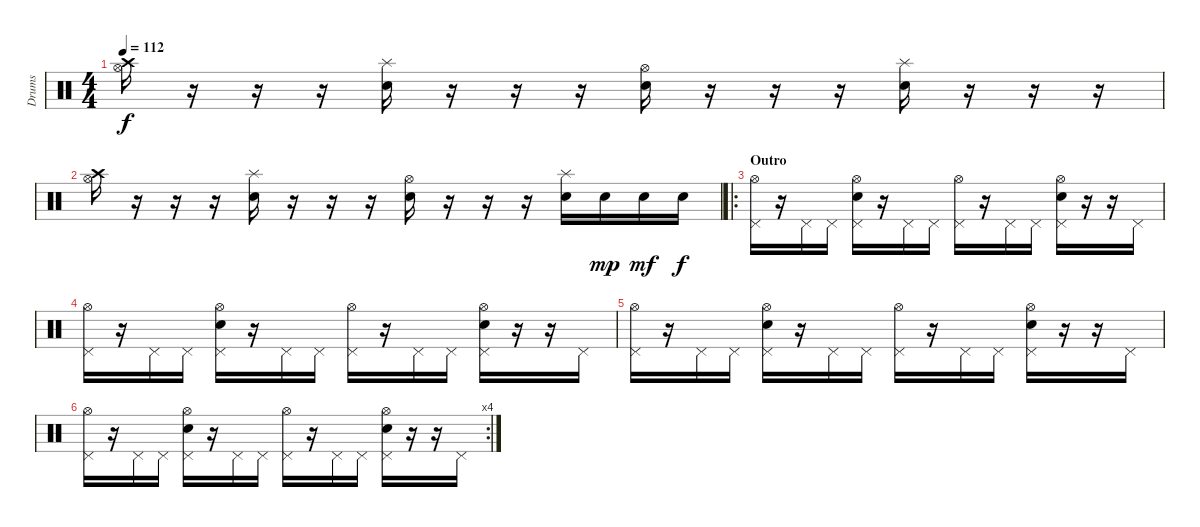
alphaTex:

\track ("Drums" "Drums") {instrument percussion}
\staff {score}
\articulation defaults
\ts (4 4)
\tempo 112
\clef neutral
\ks c
("Hi-Hat (open)" "Crash high (hit)").16{dy f} r.16 r.16 r.16 ("Electric Snare (hit)" "Splash (hit)").16 r.16 r.16 r.16 ("Hi-Hat (open)" "Electric Snare (hit)").16 r.16 r.16 r.16 ("Electric Snare (hit)" "Splash (hit)").16 r.16 r.16 r.16 |
("Hi-Hat (open)" "Crash high (hit)").16 r.16 r.16 r.16 ("Electric Snare (hit)" "Splash (hit)").16 r.16 r.16 r.16 ("Hi-Hat (open)" "Electric Snare (hit)").16 r.16 r.16 r.16 ("Electric Snare (hit)" "Splash (hit)").16 "Electric Snare (hit)".16{dy mp} "Electric Snare (hit)".16{dy mf} "Electric Snare (hit)".16{dy f} |
\ro
\section ("" "Outro")
("Pedal Hi-Hat (hit)" "Hi-Hat (open)").16 r.16 "Pedal Hi-Hat (hit)".16 "Pedal Hi-Hat (hit)".16 ("Pedal Hi-Hat (hit)" "Hi-Hat (open)" "Electric Snare (hit)").16 r.16 "Pedal Hi-Hat (hit)".16 "Pedal Hi-Hat (hit)".16 ("Pedal Hi-Hat (hit)" "Hi-Hat (open)").16 r.16 "Pedal Hi-Hat (hit)".16 "Pedal Hi-Hat (hit)".16 ("Pedal Hi-Hat (hit)" "Hi-Hat (open)" "Electric Snare (hit)").16 r.16 r.16 "Pedal Hi-Hat (hit)".16 |
("Pedal Hi-Hat (hit)" "Hi-Hat (open)").16 r.16 "Pedal Hi-Hat (hit)".16 "Pedal Hi-Hat (hit)".16 ("Pedal Hi-Hat (hit)" "Hi-Hat (open)" "Electric Snare (hit)").16 r.16 "Pedal Hi-Hat (hit)".16 "Pedal Hi-Hat (hit)".16 ("Pedal Hi-Hat (hit)" "Hi-Hat (open)").16 r.16 "Pedal Hi-Hat (hit)".16 "Pedal Hi-Hat (hit)".16 ("Pedal Hi-Hat (hit)" "Hi-Hat (open)" "Electric Snare (hit)").16 r.16 r.16 "Pedal Hi-Hat (hit)".16 |
("Pedal Hi-Hat (hit)" "Hi-Hat (open)").16 r.16 "Pedal Hi-Hat (hit)".16 "Pedal Hi-Hat (hit)".16 ("Pedal Hi-Hat (hit)" "Hi-Hat (open)" "Electric Snare (hit)").16 r.16 "Pedal Hi-Hat (hit)".16 "Pedal Hi-Hat (hit)".16 ("Pedal Hi-Hat (hit)" "Hi-Hat (open)").16 r.16 "Pedal Hi-Hat (hit)".16 "Pedal Hi-Hat (hit)".16 ("Pedal Hi-Hat (hit)" "Hi-Hat (open)" "Electric Snare (hit)").16 r.16 r.16 "Pedal Hi-Hat (hit)".16 |
\rc 4
("Pedal Hi-Hat (hit)" "Hi-Hat (open)").16 r.16 "Pedal Hi-Hat (hit)".16 "Pedal Hi-Hat (hit)".16 ("Pedal Hi-Hat (hit)" "Hi-Hat (open)" "Electric Snare (hit)").16 r.16 "Pedal Hi-Hat (hit)".16 "Pedal Hi-Hat (hit)".16 ("Pedal Hi-Hat (hit)" "Hi-Hat (open)").16 r.16 "Pedal Hi-Hat (hit)".16 "Pedal Hi-Hat (hit)".16 ("Pedal Hi-Hat (hit)" "Hi-Hat (open)" "Electric Snare (hit)").16 r.16 r.16 "Pedal Hi-Hat (hit)".16
